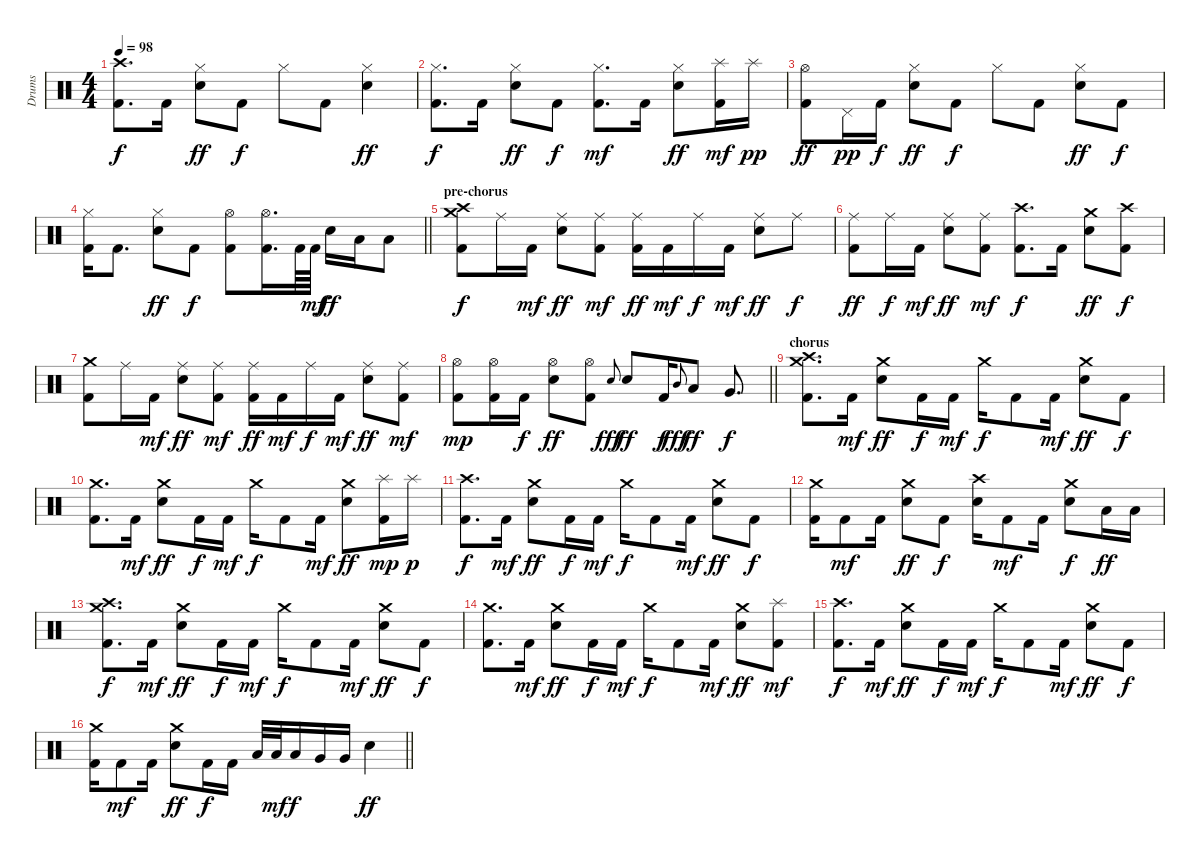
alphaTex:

\track ("Drums" "Drums") {instrument percussion}
\staff {score}
\articulation defaults
\ts (4 4)
\tempo 98
\clef neutral
\ks c
("Crash high (hit)" "Kick (hit) 2").8{d dy f} "Kick (hit) 2".16 ("Hi-Hat (closed)" "Electric Snare (hit)").8{dy ff} "Kick (hit) 2".8{dy f} "Hi-Hat (closed)".8 "Kick (hit) 2".8 ("Hi-Hat (closed)" "Electric Snare (hit)").4{dy ff} |
("Hi-Hat (closed)" "Kick (hit) 2").8{d dy f} "Kick (hit) 2".16 ("Hi-Hat (closed)" "Electric Snare (hit)").8{dy ff} "Kick (hit) 2".8{dy f} ("Hi-Hat (closed)" "Kick (hit) 2").8{d dy mf} "Kick (hit) 2".16 ("Hi-Hat (closed)" "Electric Snare (hit)").8{dy ff} ("Splash (hit)" "Kick (hit) 2").16{dy mf} "Splash (hit)".16{dy pp} |
("Hi-Hat (open)" "Kick (hit) 2").8{dy ff} "Pedal Hi-Hat (hit)".16{dy pp} "Kick (hit) 2".16{dy f} ("Hi-Hat (closed)" "Electric Snare (hit)").8{dy ff} "Kick (hit) 2".8{dy f} "Hi-Hat (closed)".8 "Kick (hit) 2".8 ("Hi-Hat (closed)" "Electric Snare (hit)").8{dy ff} "Kick (hit) 2".8{dy f} |
\barLineRight lightlight
("Hi-Hat (closed)" "Kick (hit) 2").16 "Kick (hit) 2".8{d} ("Hi-Hat (closed)" "Electric Snare (hit)").8{dy ff} "Kick (hit) 2".8{dy f} ("Hi-Hat (open)" "Kick (hit) 2").8 ("Hi-Hat (open)" "Kick (hit) 2").16{d} "Kick (hit) 2".64 "Kick (hit) 2".64{dy mf} "Electric Snare (hit)".16{dy ff} "Low Tom (hit)".16 "Low Tom (hit)".8 |
\section ("" "pre-chorus")
("Crash medium (hit)" "Crash high (hit)" "Kick (hit) 2").8{dy f} "Ride (middle)".16 "Kick (hit) 2".16{dy mf} ("Ride (middle)" "Electric Snare (hit)").8{dy ff} ("Ride (middle)" "Kick (hit) 2").8{dy mf} ("Ride (middle)" "Kick (hit) 2").16{dy ff} "Kick (hit) 2".16{dy mf} "Ride (middle)".16{dy f} "Kick (hit) 2".16{dy mf} ("Ride (middle)" "Electric Snare (hit)").8{dy ff} "Ride (middle)".8{dy f} |
("Ride (middle)" "Kick (hit) 2").8{dy ff} "Ride (middle)".16{dy f} "Kick (hit) 2".16{dy mf} ("Ride (middle)" "Electric Snare (hit)").8{dy ff} ("Ride (middle)" "Kick (hit) 2").8{dy mf} ("Crash high (hit)" "Kick (hit) 2").8{d dy f} "Kick (hit) 2".16 ("Crash medium (hit)" "Electric Snare (hit)").8{dy ff} ("Crash high (hit)" "Kick (hit) 2").8{dy f} |
("Crash medium (hit)" "Kick (hit) 2").8 "Ride (middle)".16 "Kick (hit) 2".16{dy mf} ("Ride (middle)" "Electric Snare (hit)").8{dy ff} ("Ride (middle)" "Kick (hit) 2").8{dy mf} ("Ride (middle)" "Kick (hit) 2").16{dy ff} "Kick (hit) 2".16{dy mf} "Ride (middle)".16{dy f} "Kick (hit) 2".16{dy mf} ("Ride (middle)" "Electric Snare (hit)").8{dy ff} ("Ride (middle)" "Kick (hit) 2").8{dy mf} |
\barLineRight lightlight
("Hi-Hat (open)" "Kick (hit) 2").8{dy mp} ("Hi-Hat (open)" "Kick (hit) 2").16 "Kick (hit) 2".16{dy f} ("Hi-Hat (open)" "Electric Snare (hit)").8{dy ff} ("Hi-Hat (open)" "Kick (hit) 2").8 "Snare (hit) 2"{x}.8{gr onbeat dy fff} "Electric Snare (hit)".8{dy ff} "Kick (hit) 2".16{dy f} "Mid Tom (hit)"{x}.8{gr onbeat dy fff} "Low Tom (hit)".8{dy ff} "Very Low Tom (hit)".8{d dy f} |
\section ("" "chorus")
("Crash medium (hit)" "Crash high (hit)" "Kick (hit) 2").8{d} "Kick (hit) 2".16{dy mf} ("Crash medium (hit)" "Electric Snare (hit)").8{dy ff} "Kick (hit) 2".16{dy f} "Kick (hit) 2".16{dy mf} "Crash medium (hit)".16{dy f} "Kick (hit) 2".8 "Kick (hit) 2".16{dy mf} ("Crash medium (hit)" "Electric Snare (hit)").8{dy ff} "Kick (hit) 2".8{dy f} |
("Crash medium (hit)" "Kick (hit) 2").8{d} "Kick (hit) 2".16{dy mf} ("Crash medium (hit)" "Electric Snare (hit)").8{dy ff} "Kick (hit) 2".16{dy f} "Kick (hit) 2".16{dy mf} "Crash medium (hit)".16{dy f} "Kick (hit) 2".8 "Kick (hit) 2".16{dy mf} ("Crash medium (hit)" "Electric Snare (hit)").8{dy ff} ("Splash (hit)" "Kick (hit) 2").16{dy mp} "Splash (hit)".16{dy p} |
("Crash high (hit)" "Kick (hit) 2").8{d dy f} "Kick (hit) 2".16{dy mf} ("Crash medium (hit)" "Electric Snare (hit)").8{dy ff} "Kick (hit) 2".16{dy f} "Kick (hit) 2".16{dy mf} "Crash medium (hit)".16{dy f} "Kick (hit) 2".8 "Kick (hit) 2".16{dy mf} ("Crash medium (hit)" "Electric Snare (hit)").8{dy ff} "Kick (hit) 2".8{dy f} |
("Crash medium (hit)" "Kick (hit) 2").16 "Kick (hit) 2".8{dy mf} "Kick (hit) 2".16 ("Crash medium (hit)" "Electric Snare (hit)").8{dy ff} "Kick (hit) 2".8{dy f} ("Crash high (hit)" "Electric Snare (hit)").16 "Kick (hit) 2".8{dy mf} "Kick (hit) 2".16 ("Crash medium (hit)" "Electric Snare (hit)").8{dy f} "Low Tom (hit)".16{dy ff} "Low Tom (hit)".16 |
("Crash medium (hit)" "Crash high (hit)" "Kick (hit) 2").8{d dy f} "Kick (hit) 2".16{dy mf} ("Crash medium (hit)" "Electric Snare (hit)").8{dy ff} "Kick (hit) 2".16{dy f} "Kick (hit) 2".16{dy mf} "Crash medium (hit)".16{dy f} "Kick (hit) 2".8 "Kick (hit) 2".16{dy mf} ("Crash medium (hit)" "Electric Snare (hit)").8{dy ff} "Kick (hit) 2".8{dy f} |
("Crash medium (hit)" "Kick (hit) 2").8{d} "Kick (hit) 2".16{dy mf} ("Crash medium (hit)" "Electric Snare (hit)").8{dy ff} "Kick (hit) 2".16{dy f} "Kick (hit) 2".16{dy mf} "Crash medium (hit)".16{dy f} "Kick (hit) 2".8 "Kick (hit) 2".16{dy mf} ("Crash medium (hit)" "Electric Snare (hit)").8{dy ff} ("Splash (hit)" "Kick (hit) 2").8{dy mf} |
("Crash high (hit)" "Kick (hit) 2").8{d dy f} "Kick (hit) 2".16{dy mf} ("Crash medium (hit)" "Electric Snare (hit)").8{dy ff} "Kick (hit) 2".16{dy f} "Kick (hit) 2".16{dy mf} "Crash medium (hit)".16{dy f} "Kick (hit) 2".8 "Kick (hit) 2".16{dy mf} ("Crash medium (hit)" "Electric Snare (hit)").8{dy ff} "Kick (hit) 2".8{dy f} |
\barLineRight lightlight
("Crash medium (hit)" "Kick (hit) 2").16 "Kick (hit) 2".8{dy mf} "Kick (hit) 2".16 ("Crash medium (hit)" "Electric Snare (hit)").8{dy ff} "Kick (hit) 2".16{dy f} "Kick (hit) 2".16 "Low Tom (hit)".32 "Low Tom (hit)".32{dy mf} "Low Tom (hit)".16{dy f} "Very Low Tom (hit)".16 "Very Low Tom (hit)".16 "Electric Snare (hit)".4{dy ff}
